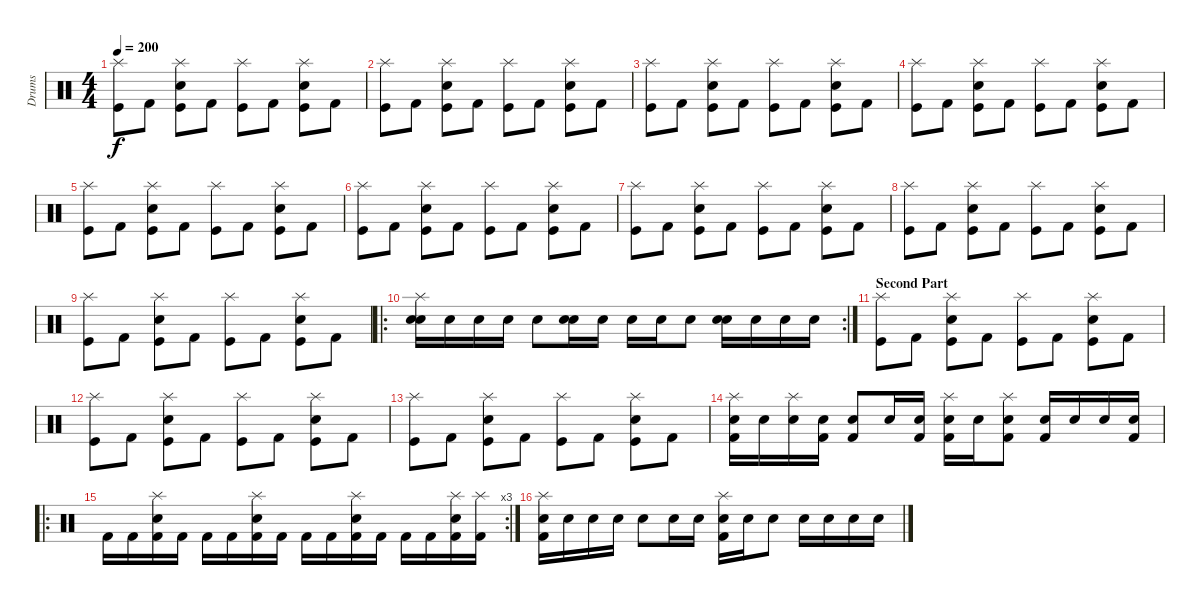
\track ("Drums" "Drums") {instrument percussion}
\staff {score}
\articulation defaults
\ts (4 4)
\tempo 200
\clef neutral
\ks c
("Splash (hit)" "Kick (hit)").8{dy f} "Kick (hit) 2".8 ("Splash (hit)" "Electric Snare (hit)" "Kick (hit)").8 "Kick (hit) 2".8 ("Splash (hit)" "Kick (hit)").8 "Kick (hit) 2".8 ("Splash (hit)" "Electric Snare (hit)" "Kick (hit)").8 "Kick (hit) 2".8 |
("Splash (hit)" "Kick (hit)").8 "Kick (hit) 2".8 ("Splash (hit)" "Electric Snare (hit)" "Kick (hit)").8 "Kick (hit) 2".8 ("Splash (hit)" "Kick (hit)").8 "Kick (hit) 2".8 ("Splash (hit)" "Electric Snare (hit)" "Kick (hit)").8 "Kick (hit) 2".8 |
("Splash (hit)" "Kick (hit)").8 "Kick (hit) 2".8 ("Splash (hit)" "Electric Snare (hit)" "Kick (hit)").8 "Kick (hit) 2".8 ("Splash (hit)" "Kick (hit)").8 "Kick (hit) 2".8 ("Splash (hit)" "Electric Snare (hit)" "Kick (hit)").8 "Kick (hit) 2".8 |
("Splash (hit)" "Kick (hit)").8 "Kick (hit) 2".8 ("Splash (hit)" "Electric Snare (hit)" "Kick (hit)").8 "Kick (hit) 2".8 ("Splash (hit)" "Kick (hit)").8 "Kick (hit) 2".8 ("Splash (hit)" "Electric Snare (hit)" "Kick (hit)").8 "Kick (hit) 2".8 |
("Splash (hit)" "Kick (hit)").8 "Kick (hit) 2".8 ("Splash (hit)" "Electric Snare (hit)" "Kick (hit)").8 "Kick (hit) 2".8 ("Splash (hit)" "Kick (hit)").8 "Kick (hit) 2".8 ("Splash (hit)" "Electric Snare (hit)" "Kick (hit)").8 "Kick (hit) 2".8 |
("Splash (hit)" "Kick (hit)").8 "Kick (hit) 2".8 ("Splash (hit)" "Electric Snare (hit)" "Kick (hit)").8 "Kick (hit) 2".8 ("Splash (hit)" "Kick (hit)").8 "Kick (hit) 2".8 ("Splash (hit)" "Electric Snare (hit)" "Kick (hit)").8 "Kick (hit) 2".8 |
("Splash (hit)" "Kick (hit)").8 "Kick (hit) 2".8 ("Splash (hit)" "Electric Snare (hit)" "Kick (hit)").8 "Kick (hit) 2".8 ("Splash (hit)" "Kick (hit)").8 "Kick (hit) 2".8 ("Splash (hit)" "Electric Snare (hit)" "Kick (hit)").8 "Kick (hit) 2".8 |
("Splash (hit)" "Kick (hit)").8 "Kick (hit) 2".8 ("Splash (hit)" "Electric Snare (hit)" "Kick (hit)").8 "Kick (hit) 2".8 ("Splash (hit)" "Kick (hit)").8 "Kick (hit) 2".8 ("Splash (hit)" "Electric Snare (hit)" "Kick (hit)").8 "Kick (hit) 2".8 |
("Splash (hit)" "Kick (hit)").8 "Kick (hit) 2".8 ("Splash (hit)" "Electric Snare (hit)" "Kick (hit)").8 "Kick (hit) 2".8 ("Splash (hit)" "Kick (hit)").8 "Kick (hit) 2".8 ("Splash (hit)" "Electric Snare (hit)" "Kick (hit)").8 "Kick (hit) 2".8 |
\ro
\rc 2
("Electric Snare (hit)" "Splash (hit)" "Snare (hit) 2").16 "Snare (hit) 2".16 "Snare (hit) 2".16 "Snare (hit) 2".16 "Snare (hit) 2".8 ("Electric Snare (hit)" "Snare (hit) 2").16 "Snare (hit) 2".16 "Snare (hit) 2".16 "Snare (hit) 2".16 "Snare (hit) 2".8 ("Electric Snare (hit)" "Snare (hit) 2").16 "Snare (hit) 2".16 "Snare (hit) 2".16 "Snare (hit) 2".16 |
\section ("" "Second Part")
("Splash (hit)" "Kick (hit)").8 "Kick (hit) 2".8 ("Splash (hit)" "Electric Snare (hit)" "Kick (hit)").8 "Kick (hit) 2".8 ("Splash (hit)" "Kick (hit)").8 "Kick (hit) 2".8 ("Splash (hit)" "Electric Snare (hit)" "Kick (hit)").8 "Kick (hit) 2".8 |
("Splash (hit)" "Kick (hit)").8 "Kick (hit) 2".8 ("Splash (hit)" "Electric Snare (hit)" "Kick (hit)").8 "Kick (hit) 2".8 ("Splash (hit)" "Kick (hit)").8 "Kick (hit) 2".8 ("Splash (hit)" "Electric Snare (hit)" "Kick (hit)").8 "Kick (hit) 2".8 |
("Splash (hit)" "Kick (hit)").8 "Kick (hit) 2".8 ("Splash (hit)" "Electric Snare (hit)" "Kick (hit)").8 "Kick (hit) 2".8 ("Splash (hit)" "Kick (hit)").8 "Kick (hit) 2".8 ("Splash (hit)" "Electric Snare (hit)" "Kick (hit)").8 "Kick (hit) 2".8 |
("Kick (hit) 2" "Splash (hit)" "Snare (hit) 2").16 "Snare (hit) 2".16 ("Splash (hit)" "Snare (hit) 2").16 ("Kick (hit) 2" "Snare (hit) 2").16 ("Kick (hit) 2" "Snare (hit) 2").8 "Snare (hit) 2".16 ("Kick (hit) 2" "Snare (hit) 2").16 ("Kick (hit) 2" "Splash (hit)" "Snare (hit) 2").16 "Snare (hit) 2".16 ("Kick (hit) 2" "Splash (hit)" "Snare (hit) 2").8 ("Kick (hit) 2" "Snare (hit) 2").16 "Snare (hit) 2".16 "Snare (hit) 2".16 ("Kick (hit) 2" "Snare (hit) 2").16 |
\ro
\rc 3 "Kick (hit) 2".16 "Kick (hit) 2".16
("Kick (hit) 2" "Snare (hit) 2" "Splash (hit)").16 "Kick (hit) 2".16 "Kick (hit) 2".16 "Kick (hit) 2".16 ("Kick (hit) 2" "Snare (hit) 2" "Splash (hit)").16 "Kick (hit) 2".16 "Kick (hit) 2".16 "Kick (hit) 2".16 ("Kick (hit) 2" "Snare (hit) 2" "Splash (hit)").16 "Kick (hit) 2".16 "Kick (hit) 2".16 "Kick (hit) 2".16 ("Kick (hit) 2" "Snare (hit) 2" "Splash (hit)").16 ("Kick (hit) 2" "Splash (hit)").16 |
("Kick (hit) 2" "Splash (hit)" "Snare (hit) 2").16 "Snare (hit) 2".16 "Snare (hit) 2".16 "Snare (hit) 2".16 "Snare (hit) 2".8 "Snare (hit) 2".16 "Snare (hit) 2".16 ("Kick (hit) 2" "Splash (hit)" "Snare (hit) 2").16 "Snare (hit) 2".16 "Snare (hit) 2".8 "Snare (hit) 2".16 "Snare (hit) 2".16 "Snare (hit) 2".16 "Snare (hit) 2".16
